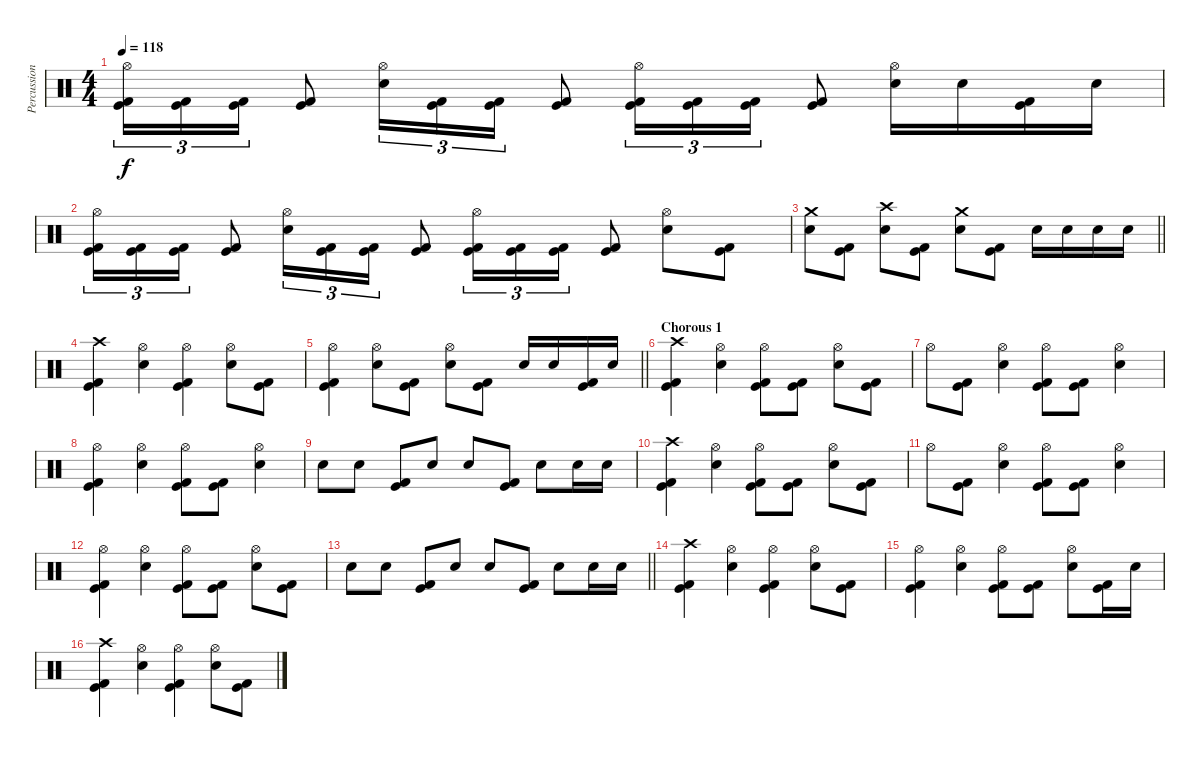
\track ("Percussion" "Percussion") {instrument percussion}
\staff {score}
\articulation defaults
\ts (4 4)
\tempo 118
\clef neutral
\ks c
("Hi-Hat (open)" "Kick (hit)" "Kick (hit) 2").16{tu (3 2) dy f} ("Kick (hit)" "Kick (hit) 2").16{tu (3 2)} ("Kick (hit)" "Kick (hit) 2").16{tu (3 2)} ("Kick (hit)" "Kick (hit) 2").8 ("Hi-Hat (open)" "Electric Snare (hit)").16{tu (3 2)} ("Kick (hit)" "Kick (hit) 2").16{tu (3 2)} ("Kick (hit)" "Kick (hit) 2").16{tu (3 2)} ("Kick (hit)" "Kick (hit) 2").8 ("Hi-Hat (open)" "Kick (hit)" "Kick (hit) 2").16{tu (3 2)} ("Kick (hit)" "Kick (hit) 2").16{tu (3 2)} ("Kick (hit)" "Kick (hit) 2").16{tu (3 2)} ("Kick (hit)" "Kick (hit) 2").8 ("Hi-Hat (open)" "Electric Snare (hit)").16 "Electric Snare (hit)".16 ("Kick (hit)" "Kick (hit) 2").16 "Electric Snare (hit)".16 |
("Hi-Hat (open)" "Kick (hit)" "Kick (hit) 2").16{tu (3 2)} ("Kick (hit)" "Kick (hit) 2").16{tu (3 2)} ("Kick (hit)" "Kick (hit) 2").16{tu (3 2)} ("Kick (hit)" "Kick (hit) 2").8 ("Hi-Hat (open)" "Electric Snare (hit)").16{tu (3 2)} ("Kick (hit)" "Kick (hit) 2").16{tu (3 2)} ("Kick (hit)" "Kick (hit) 2").16{tu (3 2)} ("Kick (hit)" "Kick (hit) 2").8 ("Hi-Hat (open)" "Kick (hit)" "Kick (hit) 2").16{tu (3 2)} ("Kick (hit)" "Kick (hit) 2").16{tu (3 2)} ("Kick (hit)" "Kick (hit) 2").16{tu (3 2)} ("Kick (hit)" "Kick (hit) 2").8 ("Hi-Hat (open)" "Electric Snare (hit)").8 ("Kick (hit)" "Kick (hit) 2").8 |
\barLineRight lightlight
("Crash medium (hit)" "Electric Snare (hit)").8 ("Kick (hit)" "Kick (hit) 2").8 ("Crash high (hit)" "Electric Snare (hit)").8 ("Kick (hit)" "Kick (hit) 2").8 ("Crash medium (hit)" "Electric Snare (hit)").8 ("Kick (hit)" "Kick (hit) 2").8 "Electric Snare (hit)".16 "Electric Snare (hit)".16 "Electric Snare (hit)".16 "Electric Snare (hit)".16 |
\section ("" "")
("Crash high (hit)" "Kick (hit)" "Kick (hit) 2").4 ("Hi-Hat (open)" "Electric Snare (hit)").4 ("Hi-Hat (open)" "Kick (hit)" "Kick (hit) 2").4 ("Hi-Hat (open)" "Electric Snare (hit)").8 ("Kick (hit)" "Kick (hit) 2").8 |
\barLineRight lightlight
("Hi-Hat (open)" "Kick (hit)" "Kick (hit) 2").4 ("Hi-Hat (open)" "Electric Snare (hit)").8 ("Kick (hit)" "Kick (hit) 2").8 ("Hi-Hat (open)" "Electric Snare (hit)").8 ("Kick (hit)" "Kick (hit) 2").8 "Electric Snare (hit)".16 "Electric Snare (hit)".16 ("Kick (hit)" "Kick (hit) 2").16 "Electric Snare (hit)".16 |
\section ("" "Chorous 1")
("Crash high (hit)" "Kick (hit)" "Kick (hit) 2").4 ("Hi-Hat (open)" "Electric Snare (hit)").4 ("Hi-Hat (open)" "Kick (hit)" "Kick (hit) 2").8 ("Kick (hit)" "Kick (hit) 2").8 ("Hi-Hat (open)" "Electric Snare (hit)").8 ("Kick (hit)" "Kick (hit) 2").8 |
"Hi-Hat (open)".8 ("Kick (hit)" "Kick (hit) 2").8 ("Hi-Hat (open)" "Electric Snare (hit)").4 ("Hi-Hat (open)" "Kick (hit)" "Kick (hit) 2").8 ("Kick (hit)" "Kick (hit) 2").8 ("Hi-Hat (open)" "Electric Snare (hit)").4 |
("Hi-Hat (open)" "Kick (hit)" "Kick (hit) 2").4 ("Hi-Hat (open)" "Electric Snare (hit)").4 ("Hi-Hat (open)" "Kick (hit)" "Kick (hit) 2").8 ("Kick (hit)" "Kick (hit) 2").8 ("Hi-Hat (open)" "Electric Snare (hit)").4 |
"Electric Snare (hit)".8 "Electric Snare (hit)".8 ("Kick (hit)" "Kick (hit) 2").8 "Electric Snare (hit)".8 "Electric Snare (hit)".8 ("Kick (hit)" "Kick (hit) 2").8 "Electric Snare (hit)".8 "Electric Snare (hit)".16 "Electric Snare (hit)".16 |
("Crash high (hit)" "Kick (hit)" "Kick (hit) 2").4 ("Hi-Hat (open)" "Electric Snare (hit)").4 ("Hi-Hat (open)" "Kick (hit)" "Kick (hit) 2").8 ("Kick (hit)" "Kick (hit) 2").8 ("Hi-Hat (open)" "Electric Snare (hit)").8 ("Kick (hit)" "Kick (hit) 2").8 |
"Hi-Hat (open)".8 ("Kick (hit)" "Kick (hit) 2").8 ("Hi-Hat (open)" "Electric Snare (hit)").4 ("Hi-Hat (open)" "Kick (hit)" "Kick (hit) 2").8 ("Kick (hit)" "Kick (hit) 2").8 ("Hi-Hat (open)" "Electric Snare (hit)").4 |
("Hi-Hat (open)" "Kick (hit)" "Kick (hit) 2").4 ("Hi-Hat (open)" "Electric Snare (hit)").4 ("Hi-Hat (open)" "Kick (hit)" "Kick (hit) 2").8 ("Kick (hit)" "Kick (hit) 2").8 ("Hi-Hat (open)" "Electric Snare (hit)").8 ("Kick (hit)" "Kick (hit) 2").8 |
\barLineRight lightlight "Electric Snare (hit)".8 "Electric Snare (hit)".8
("Kick (hit)" "Kick (hit) 2").8 "Electric Snare (hit)".8 "Electric Snare (hit)".8 ("Kick (hit)" "Kick (hit) 2").8 "Electric Snare (hit)".8 "Electric Snare (hit)".16 "Electric Snare (hit)".16 |
\section ("" "")
("Crash high (hit)" "Kick (hit)" "Kick (hit) 2").4 ("Hi-Hat (open)" "Electric Snare (hit)").4 ("Hi-Hat (open)" "Kick (hit)" "Kick (hit) 2").4 ("Hi-Hat (open)" "Electric Snare (hit)").8 ("Kick (hit)" "Kick (hit) 2").8 |
("Hi-Hat (open)" "Kick (hit)" "Kick (hit) 2").4 ("Hi-Hat (open)" "Electric Snare (hit)").4 ("Hi-Hat (open)" "Kick (hit)" "Kick (hit) 2").8 ("Kick (hit)" "Kick (hit) 2").8 ("Hi-Hat (open)" "Electric Snare (hit)").8 ("Kick (hit)" "Kick (hit) 2").16 "Electric Snare (hit)".16 |
("Crash high (hit)" "Kick (hit)" "Kick (hit) 2").4 ("Hi-Hat (open)" "Electric Snare (hit)").4 ("Hi-Hat (open)" "Kick (hit)" "Kick (hit) 2").4 ("Hi-Hat (open)" "Electric Snare (hit)").8 ("Kick (hit)" "Kick (hit) 2").8
